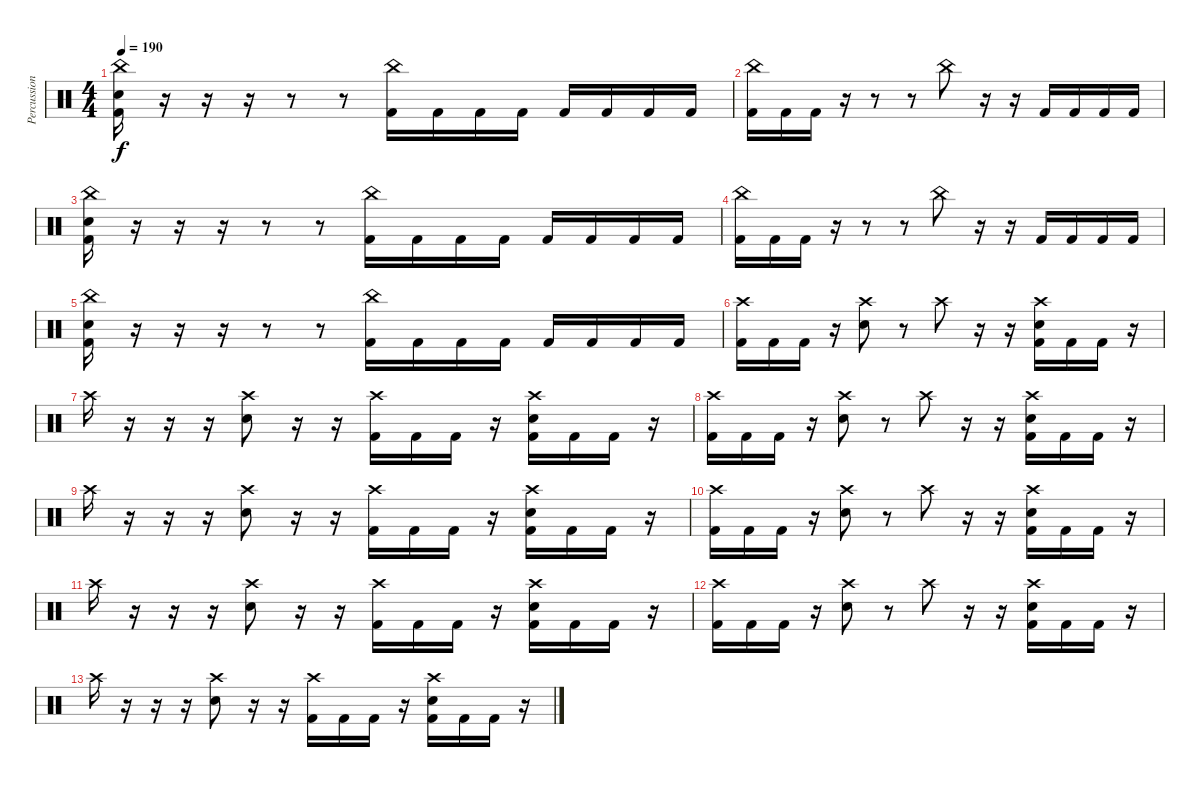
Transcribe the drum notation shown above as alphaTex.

\track ("Percussion" "Percussion") {instrument percussion}
\staff {score}
\articulation defaults
\ts (4 4)
\tempo 190
\clef neutral
\ks c
("China (hit)" "Snare (hit) 2" "Kick (hit) 2").16{dy f} r.16 r.16 r.16 r.8 r.8 ("China (hit)" "Kick (hit) 2").16 "Kick (hit) 2".16 "Kick (hit) 2".16 "Kick (hit) 2".16 "Kick (hit) 2".16 "Kick (hit) 2".16 "Kick (hit) 2".16 "Kick (hit) 2".16 |
("China (hit)" "Kick (hit) 2").16 "Kick (hit) 2".16 "Kick (hit) 2".16 r.16 r.8 r.8 "China (hit)".8 r.16 r.16 "Kick (hit) 2".16 "Kick (hit) 2".16 "Kick (hit) 2".16 "Kick (hit) 2".16 |
("China (hit)" "Snare (hit) 2" "Kick (hit) 2").16 r.16 r.16 r.16 r.8 r.8 ("China (hit)" "Kick (hit) 2").16 "Kick (hit) 2".16 "Kick (hit) 2".16 "Kick (hit) 2".16 "Kick (hit) 2".16 "Kick (hit) 2".16 "Kick (hit) 2".16 "Kick (hit) 2".16 |
("China (hit)" "Kick (hit) 2").16 "Kick (hit) 2".16 "Kick (hit) 2".16 r.16 r.8 r.8 "China (hit)".8 r.16 r.16 "Kick (hit) 2".16 "Kick (hit) 2".16 "Kick (hit) 2".16 "Kick (hit) 2".16 |
("China (hit)" "Snare (hit) 2" "Kick (hit) 2").16 r.16 r.16 r.16 r.8 r.8 ("China (hit)" "Kick (hit) 2").16 "Kick (hit) 2".16 "Kick (hit) 2".16 "Kick (hit) 2".16 "Kick (hit) 2".16 "Kick (hit) 2".16 "Kick (hit) 2".16 "Kick (hit) 2".16 |
("Crash high (hit)" "Kick (hit) 2").16{volume 8} "Kick (hit) 2".16 "Kick (hit) 2".16 r.16 ("Crash high (hit)" "Snare (hit) 2").8 r.8 "Crash high (hit)".8 r.16 r.16 ("Crash high (hit)" "Snare (hit) 2" "Kick (hit) 2").16 "Kick (hit) 2".16 "Kick (hit) 2".16 r.16 |
"Crash high (hit)".16 r.16 r.16 r.16 ("Crash high (hit)" "Snare (hit) 2").8 r.16 r.16 ("Crash high (hit)" "Kick (hit) 2").16 "Kick (hit) 2".16 "Kick (hit) 2".16 r.16 ("Crash high (hit)" "Snare (hit) 2" "Kick (hit) 2").16 "Kick (hit) 2".16 "Kick (hit) 2".16 r.16 |
("Crash high (hit)" "Kick (hit) 2").16 "Kick (hit) 2".16 "Kick (hit) 2".16 r.16 ("Crash high (hit)" "Snare (hit) 2").8 r.8 "Crash high (hit)".8 r.16 r.16 ("Crash high (hit)" "Snare (hit) 2" "Kick (hit) 2").16 "Kick (hit) 2".16 "Kick (hit) 2".16 r.16 |
"Crash high (hit)".16 r.16 r.16 r.16 ("Crash high (hit)" "Snare (hit) 2").8 r.16 r.16 ("Crash high (hit)" "Kick (hit) 2").16 "Kick (hit) 2".16 "Kick (hit) 2".16 r.16 ("Crash high (hit)" "Snare (hit) 2" "Kick (hit) 2").16 "Kick (hit) 2".16 "Kick (hit) 2".16 r.16 |
("Crash high (hit)" "Kick (hit) 2").16{volume 0} "Kick (hit) 2".16 "Kick (hit) 2".16 r.16 ("Crash high (hit)" "Snare (hit) 2").8 r.8 "Crash high (hit)".8 r.16 r.16 ("Crash high (hit)" "Snare (hit) 2" "Kick (hit) 2").16 "Kick (hit) 2".16 "Kick (hit) 2".16 r.16 |
"Crash high (hit)".16 r.16 r.16 r.16 ("Crash high (hit)" "Snare (hit) 2").8 r.16 r.16 ("Crash high (hit)" "Kick (hit) 2").16 "Kick (hit) 2".16 "Kick (hit) 2".16 r.16 ("Crash high (hit)" "Snare (hit) 2" "Kick (hit) 2").16 "Kick (hit) 2".16 "Kick (hit) 2".16 r.16 |
("Crash high (hit)" "Kick (hit) 2").16 "Kick (hit) 2".16 "Kick (hit) 2".16 r.16 ("Crash high (hit)" "Snare (hit) 2").8 r.8 "Crash high (hit)".8 r.16 r.16 ("Crash high (hit)" "Snare (hit) 2" "Kick (hit) 2").16 "Kick (hit) 2".16 "Kick (hit) 2".16 r.16 |
"Crash high (hit)".16 r.16 r.16 r.16 ("Crash high (hit)" "Snare (hit) 2").8 r.16 r.16 ("Crash high (hit)" "Kick (hit) 2").16 "Kick (hit) 2".16 "Kick (hit) 2".16 r.16 ("Crash high (hit)" "Snare (hit) 2" "Kick (hit) 2").16 "Kick (hit) 2".16 "Kick (hit) 2".16 r.16
